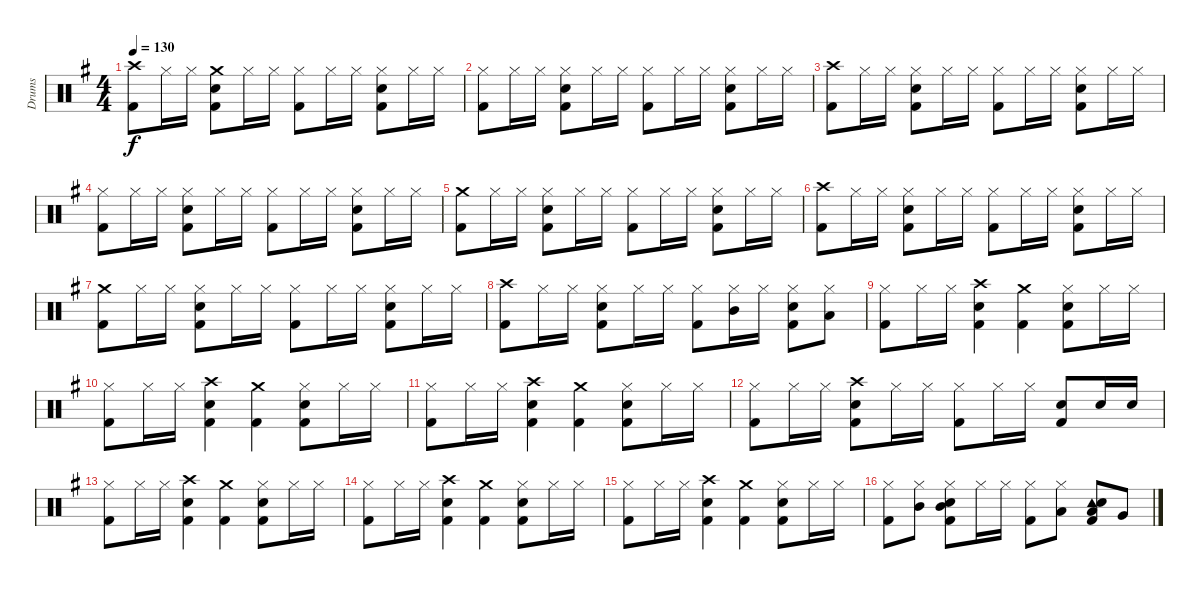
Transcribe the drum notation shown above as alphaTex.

\track ("Drums" "Drums") {instrument percussion}
\staff {score}
\articulation defaults
\ts (4 4)
\tempo 130
\clef neutral
\ks g
("Crash high (hit)" "Kick (hit) 2").8{dy f} "Hi-Hat (closed)".16 "Hi-Hat (closed)".16 ("Crash medium (hit)" "Electric Snare (hit)" "Kick (hit) 2").8 "Hi-Hat (closed)".16 "Hi-Hat (closed)".16 ("Hi-Hat (closed)" "Kick (hit) 2").8 "Hi-Hat (closed)".16 "Hi-Hat (closed)".16 ("Hi-Hat (closed)" "Electric Snare (hit)" "Kick (hit) 2").8 "Hi-Hat (closed)".16 "Hi-Hat (closed)".16 |
("Hi-Hat (closed)" "Kick (hit) 2").8 "Hi-Hat (closed)".16 "Hi-Hat (closed)".16 ("Hi-Hat (closed)" "Electric Snare (hit)" "Kick (hit) 2").8 "Hi-Hat (closed)".16 "Hi-Hat (closed)".16 ("Hi-Hat (closed)" "Kick (hit) 2").8 "Hi-Hat (closed)".16 "Hi-Hat (closed)".16 ("Hi-Hat (closed)" "Electric Snare (hit)" "Kick (hit) 2").8 "Hi-Hat (closed)".16 "Hi-Hat (closed)".16 |
("Crash high (hit)" "Kick (hit) 2").8 "Hi-Hat (closed)".16 "Hi-Hat (closed)".16 ("Hi-Hat (closed)" "Electric Snare (hit)" "Kick (hit) 2").8 "Hi-Hat (closed)".16 "Hi-Hat (closed)".16 ("Hi-Hat (closed)" "Kick (hit) 2").8 "Hi-Hat (closed)".16 "Hi-Hat (closed)".16 ("Hi-Hat (closed)" "Electric Snare (hit)" "Kick (hit) 2").8 "Hi-Hat (closed)".16 "Hi-Hat (closed)".16 |
("Hi-Hat (closed)" "Kick (hit) 2").8 "Hi-Hat (closed)".16 "Hi-Hat (closed)".16 ("Hi-Hat (closed)" "Electric Snare (hit)" "Kick (hit) 2").8 "Hi-Hat (closed)".16 "Hi-Hat (closed)".16 ("Hi-Hat (closed)" "Kick (hit) 2").8 "Hi-Hat (closed)".16 "Hi-Hat (closed)".16 ("Hi-Hat (closed)" "Electric Snare (hit)" "Kick (hit) 2").8 "Hi-Hat (closed)".16 "Hi-Hat (closed)".16 |
("Crash medium (hit)" "Kick (hit) 2").8 "Hi-Hat (closed)".16 "Hi-Hat (closed)".16 ("Hi-Hat (closed)" "Electric Snare (hit)" "Kick (hit) 2").8 "Hi-Hat (closed)".16 "Hi-Hat (closed)".16 ("Hi-Hat (closed)" "Kick (hit) 2").8 "Hi-Hat (closed)".16 "Hi-Hat (closed)".16 ("Hi-Hat (closed)" "Electric Snare (hit)" "Kick (hit) 2").8 "Hi-Hat (closed)".16 "Hi-Hat (closed)".16 |
("Crash high (hit)" "Kick (hit) 2").8 "Hi-Hat (closed)".16 "Hi-Hat (closed)".16 ("Hi-Hat (closed)" "Electric Snare (hit)" "Kick (hit) 2").8 "Hi-Hat (closed)".16 "Hi-Hat (closed)".16 ("Hi-Hat (closed)" "Kick (hit) 2").8 "Hi-Hat (closed)".16 "Hi-Hat (closed)".16 ("Hi-Hat (closed)" "Electric Snare (hit)" "Kick (hit) 2").8 "Hi-Hat (closed)".16 "Hi-Hat (closed)".16 |
("Crash medium (hit)" "Kick (hit) 2").8 "Hi-Hat (closed)".16 "Hi-Hat (closed)".16 ("Hi-Hat (closed)" "Electric Snare (hit)" "Kick (hit) 2").8 "Hi-Hat (closed)".16 "Hi-Hat (closed)".16 ("Hi-Hat (closed)" "Kick (hit) 2").8 "Hi-Hat (closed)".16 "Hi-Hat (closed)".16 ("Hi-Hat (closed)" "Electric Snare (hit)" "Kick (hit) 2").8 "Hi-Hat (closed)".16 "Hi-Hat (closed)".16 |
("Crash high (hit)" "Kick (hit) 2").8 "Hi-Hat (closed)".16 "Hi-Hat (closed)".16 ("Hi-Hat (closed)" "Electric Snare (hit)" "Kick (hit) 2").8 "Hi-Hat (closed)".16 "Hi-Hat (closed)".16 ("Hi-Hat (closed)" "Kick (hit) 2").8 ("Hi-Hat (closed)" "Mid Tom (hit)").16 "Hi-Hat (closed)".16 ("Hi-Hat (closed)" "Electric Snare (hit)" "Kick (hit) 2").8 ("Hi-Hat (closed)" "Low Tom (hit)").8 |
("Hi-Hat (closed)" "Kick (hit) 2").8 "Hi-Hat (closed)".16 "Hi-Hat (closed)".16 ("Crash high (hit)" "Electric Snare (hit)" "Kick (hit) 2").4 ("Crash medium (hit)" "Kick (hit) 2").4 ("Hi-Hat (closed)" "Electric Snare (hit)" "Kick (hit) 2").8 "Hi-Hat (closed)".16 "Hi-Hat (closed)".16 |
("Hi-Hat (closed)" "Kick (hit) 2").8 "Hi-Hat (closed)".16 "Hi-Hat (closed)".16 ("Crash high (hit)" "Electric Snare (hit)" "Kick (hit) 2").4 ("Crash medium (hit)" "Kick (hit) 2").4 ("Hi-Hat (closed)" "Electric Snare (hit)" "Kick (hit) 2").8 "Hi-Hat (closed)".16 "Hi-Hat (closed)".16 |
("Hi-Hat (closed)" "Kick (hit) 2").8 "Hi-Hat (closed)".16 "Hi-Hat (closed)".16 ("Crash high (hit)" "Electric Snare (hit)" "Kick (hit) 2").4 ("Crash medium (hit)" "Kick (hit) 2").4 ("Hi-Hat (closed)" "Electric Snare (hit)" "Kick (hit) 2").8 "Hi-Hat (closed)".16 "Hi-Hat (closed)".16 |
("Hi-Hat (closed)" "Kick (hit) 2").8 "Hi-Hat (closed)".16 "Hi-Hat (closed)".16 ("Crash high (hit)" "Electric Snare (hit)" "Kick (hit) 2").8 "Hi-Hat (closed)".16 "Hi-Hat (closed)".16 ("Hi-Hat (closed)" "Kick (hit) 2").8 "Hi-Hat (closed)".16 "Hi-Hat (closed)".16 ("Electric Snare (hit)" "Kick (hit) 2").8 "Electric Snare (hit)".16 "Electric Snare (hit)".16 |
("Hi-Hat (closed)" "Kick (hit) 2").8 "Hi-Hat (closed)".16 "Hi-Hat (closed)".16 ("Crash high (hit)" "Electric Snare (hit)" "Kick (hit) 2").4 ("Crash medium (hit)" "Kick (hit) 2").4 ("Hi-Hat (closed)" "Electric Snare (hit)" "Kick (hit) 2").8 "Hi-Hat (closed)".16 "Hi-Hat (closed)".16 |
("Hi-Hat (closed)" "Kick (hit) 2").8 "Hi-Hat (closed)".16 "Hi-Hat (closed)".16 ("Crash high (hit)" "Electric Snare (hit)" "Kick (hit) 2").4 ("Crash medium (hit)" "Kick (hit) 2").4 ("Hi-Hat (closed)" "Electric Snare (hit)" "Kick (hit) 2").8 "Hi-Hat (closed)".16 "Hi-Hat (closed)".16 |
("Hi-Hat (closed)" "Kick (hit) 2").8 "Hi-Hat (closed)".16 "Hi-Hat (closed)".16 ("Crash high (hit)" "Electric Snare (hit)" "Kick (hit) 2").4 ("Crash medium (hit)" "Kick (hit) 2").4 ("Hi-Hat (closed)" "Electric Snare (hit)" "Kick (hit) 2").8 "Hi-Hat (closed)".16 "Hi-Hat (closed)".16 |
("Hi-Hat (closed)" "Kick (hit) 2").8 ("Hi-Hat (closed)" "Mid Tom (hit)").8 ("Hi-Hat (closed)" "Electric Snare (hit)" "Mid Tom (hit)" "Kick (hit) 2").8 "Hi-Hat (closed)".16 "Hi-Hat (closed)".16 ("Hi-Hat (closed)" "Kick (hit) 2").8 ("Hi-Hat (closed)" "Low Tom (hit)").8 ("Tambourine (hit)" "Electric Snare (hit)" "Low Tom (hit)" "Kick (hit) 2").8 "Very Low Tom (hit)".8
